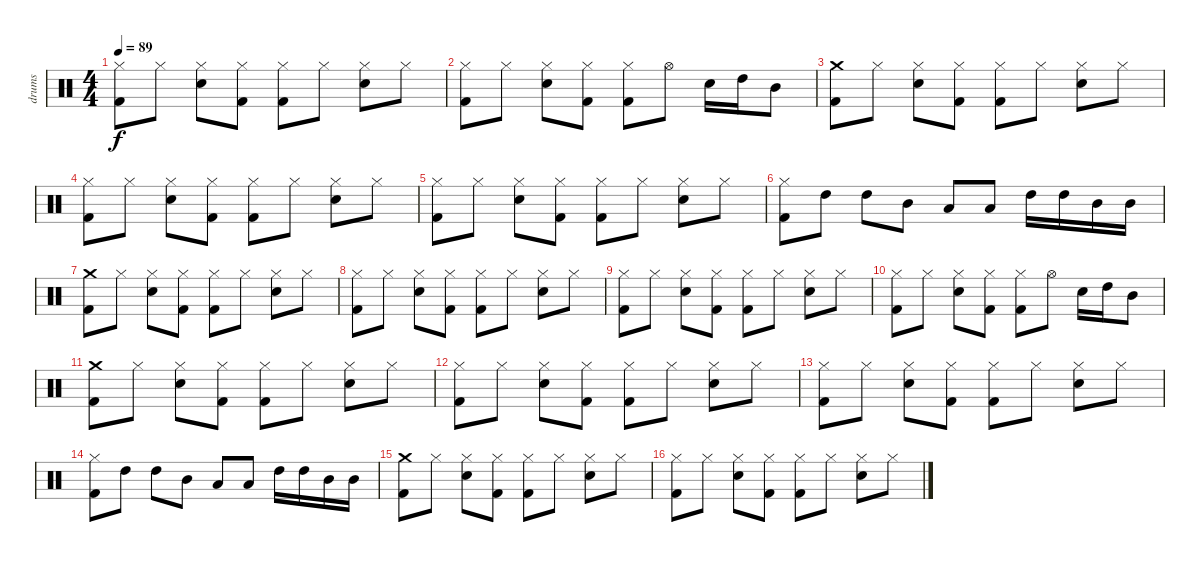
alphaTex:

\track ("drums" "drums") {instrument percussion}
\staff {score}
\articulation defaults
\ts (4 4)
\tempo 89
\clef neutral
\ks c
("Kick (hit) 2" "Hi-Hat (closed)").8{dy f} "Hi-Hat (closed)".8 ("Snare (hit) 2" "Hi-Hat (closed)").8 ("Kick (hit) 2" "Hi-Hat (closed)").8 ("Kick (hit) 2" "Hi-Hat (closed)").8 "Hi-Hat (closed)".8 ("Snare (hit) 2" "Hi-Hat (closed)").8 "Hi-Hat (closed)".8 |
("Kick (hit) 2" "Hi-Hat (closed)").8 "Hi-Hat (closed)".8 ("Snare (hit) 2" "Hi-Hat (closed)").8 ("Kick (hit) 2" "Hi-Hat (closed)").8 ("Kick (hit) 2" "Hi-Hat (closed)").8 "Hi-Hat (open)".8 "Snare (hit) 2".16 "High Tom (hit)".16 "Mid Tom (hit)".8 |
("Kick (hit) 2" "Crash medium (hit)").8 "Hi-Hat (closed)".8 ("Snare (hit) 2" "Hi-Hat (closed)").8 ("Kick (hit) 2" "Hi-Hat (closed)").8 ("Kick (hit) 2" "Hi-Hat (closed)").8 "Hi-Hat (closed)".8 ("Snare (hit) 2" "Hi-Hat (closed)").8 "Hi-Hat (closed)".8 |
("Kick (hit) 2" "Hi-Hat (closed)").8 "Hi-Hat (closed)".8 ("Snare (hit) 2" "Hi-Hat (closed)").8 ("Kick (hit) 2" "Hi-Hat (closed)").8 ("Kick (hit) 2" "Hi-Hat (closed)").8 "Hi-Hat (closed)".8 ("Snare (hit) 2" "Hi-Hat (closed)").8 "Hi-Hat (closed)".8 |
("Kick (hit) 2" "Hi-Hat (closed)").8 "Hi-Hat (closed)".8 ("Snare (hit) 2" "Hi-Hat (closed)").8 ("Kick (hit) 2" "Hi-Hat (closed)").8 ("Kick (hit) 2" "Hi-Hat (closed)").8 "Hi-Hat (closed)".8 ("Snare (hit) 2" "Hi-Hat (closed)").8 "Hi-Hat (closed)".8 |
("Kick (hit) 2" "Hi-Hat (closed)").8 "High Tom (hit)".8 "High Tom (hit)".8 "Mid Tom (hit)".8 "Low Tom (hit)".8 "Low Tom (hit)".8 "High Tom (hit)".16 "High Tom (hit)".16 "Mid Tom (hit)".16 "Mid Tom (hit)".16 |
("Kick (hit) 2" "Crash medium (hit)").8 "Hi-Hat (closed)".8 ("Snare (hit) 2" "Hi-Hat (closed)").8 ("Kick (hit) 2" "Hi-Hat (closed)").8 ("Kick (hit) 2" "Hi-Hat (closed)").8 "Hi-Hat (closed)".8 ("Snare (hit) 2" "Hi-Hat (closed)").8 "Hi-Hat (closed)".8 |
("Kick (hit) 2" "Hi-Hat (closed)").8 "Hi-Hat (closed)".8 ("Snare (hit) 2" "Hi-Hat (closed)").8 ("Kick (hit) 2" "Hi-Hat (closed)").8 ("Kick (hit) 2" "Hi-Hat (closed)").8 "Hi-Hat (closed)".8 ("Snare (hit) 2" "Hi-Hat (closed)").8 "Hi-Hat (closed)".8 |
("Kick (hit) 2" "Hi-Hat (closed)").8 "Hi-Hat (closed)".8 ("Snare (hit) 2" "Hi-Hat (closed)").8 ("Kick (hit) 2" "Hi-Hat (closed)").8 ("Kick (hit) 2" "Hi-Hat (closed)").8 "Hi-Hat (closed)".8 ("Snare (hit) 2" "Hi-Hat (closed)").8 "Hi-Hat (closed)".8 |
("Kick (hit) 2" "Hi-Hat (closed)").8 "Hi-Hat (closed)".8 ("Snare (hit) 2" "Hi-Hat (closed)").8 ("Kick (hit) 2" "Hi-Hat (closed)").8 ("Kick (hit) 2" "Hi-Hat (closed)").8 "Hi-Hat (open)".8 "Snare (hit) 2".16 "High Tom (hit)".16 "Mid Tom (hit)".8 |
("Kick (hit) 2" "Crash medium (hit)").8 "Hi-Hat (closed)".8 ("Snare (hit) 2" "Hi-Hat (closed)").8 ("Kick (hit) 2" "Hi-Hat (closed)").8 ("Kick (hit) 2" "Hi-Hat (closed)").8 "Hi-Hat (closed)".8 ("Snare (hit) 2" "Hi-Hat (closed)").8 "Hi-Hat (closed)".8 |
("Kick (hit) 2" "Hi-Hat (closed)").8 "Hi-Hat (closed)".8 ("Snare (hit) 2" "Hi-Hat (closed)").8 ("Kick (hit) 2" "Hi-Hat (closed)").8 ("Kick (hit) 2" "Hi-Hat (closed)").8 "Hi-Hat (closed)".8 ("Snare (hit) 2" "Hi-Hat (closed)").8 "Hi-Hat (closed)".8 |
("Kick (hit) 2" "Hi-Hat (closed)").8 "Hi-Hat (closed)".8 ("Snare (hit) 2" "Hi-Hat (closed)").8 ("Kick (hit) 2" "Hi-Hat (closed)").8 ("Kick (hit) 2" "Hi-Hat (closed)").8 "Hi-Hat (closed)".8 ("Snare (hit) 2" "Hi-Hat (closed)").8 "Hi-Hat (closed)".8 |
("Kick (hit) 2" "Hi-Hat (closed)").8 "High Tom (hit)".8 "High Tom (hit)".8 "Mid Tom (hit)".8 "Low Tom (hit)".8 "Low Tom (hit)".8 "High Tom (hit)".16 "High Tom (hit)".16 "Mid Tom (hit)".16 "Mid Tom (hit)".16 |
("Kick (hit) 2" "Crash medium (hit)").8{volume 16} "Hi-Hat (closed)".8{volume 16} ("Snare (hit) 2" "Hi-Hat (closed)").8{volume 15} ("Kick (hit) 2" "Hi-Hat (closed)").8{volume 15} ("Kick (hit) 2" "Hi-Hat (closed)").8{volume 14} "Hi-Hat (closed)".8{volume 13} ("Snare (hit) 2" "Hi-Hat (closed)").8{volume 13} "Hi-Hat (closed)".8{volume 12} |
("Kick (hit) 2" "Hi-Hat (closed)").8{volume 12} "Hi-Hat (closed)".8{volume 11} ("Snare (hit) 2" "Hi-Hat (closed)").8{volume 11} ("Kick (hit) 2" "Hi-Hat (closed)").8{volume 10} ("Kick (hit) 2" "Hi-Hat (closed)").8{volume 10} "Hi-Hat (closed)".8{volume 9} ("Snare (hit) 2" "Hi-Hat (closed)").8{volume 9} "Hi-Hat (closed)".8{volume 8}
